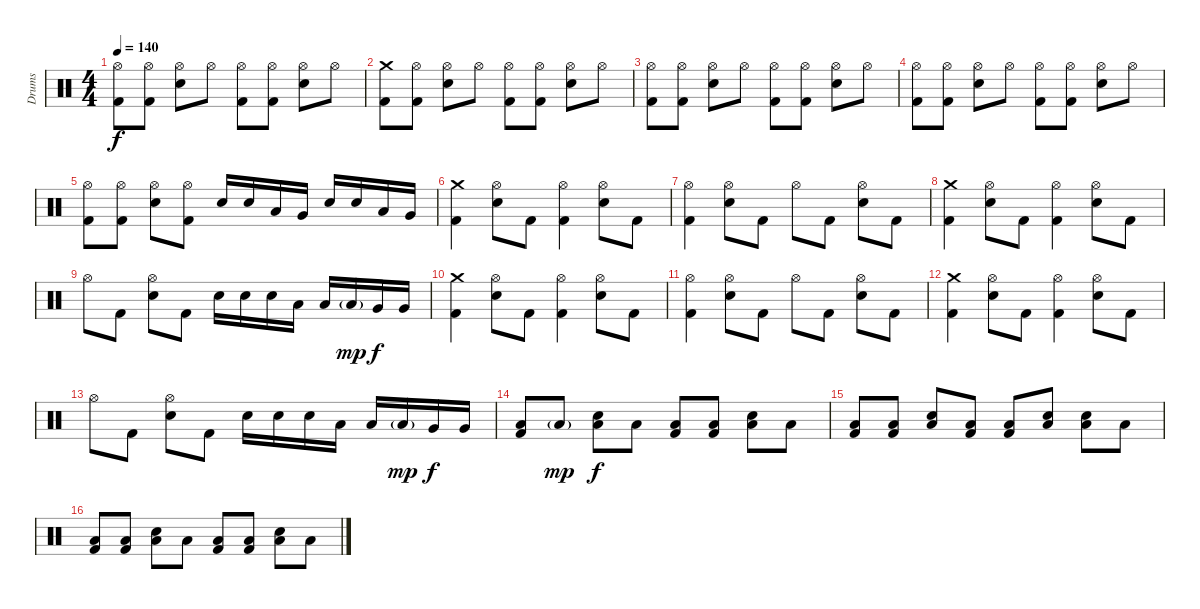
\track ("Drums" "Drums") {instrument percussion}
\staff {score}
\articulation defaults
\ts (4 4)
\tempo 140
\clef neutral
\ks c
("Hi-Hat (open)" "Kick (hit) 2").8{dy f} ("Hi-Hat (open)" "Kick (hit) 2").8 ("Hi-Hat (open)" "Electric Snare (hit)").8 "Hi-Hat (open)".8 ("Hi-Hat (open)" "Kick (hit) 2").8 ("Hi-Hat (open)" "Kick (hit) 2").8 ("Hi-Hat (open)" "Electric Snare (hit)").8 "Hi-Hat (open)".8 |
("Crash medium (hit)" "Kick (hit) 2").8 ("Hi-Hat (open)" "Kick (hit) 2").8 ("Hi-Hat (open)" "Electric Snare (hit)").8 "Hi-Hat (open)".8 ("Hi-Hat (open)" "Kick (hit) 2").8 ("Hi-Hat (open)" "Kick (hit) 2").8 ("Hi-Hat (open)" "Electric Snare (hit)").8 "Hi-Hat (open)".8 |
("Hi-Hat (open)" "Kick (hit) 2").8 ("Hi-Hat (open)" "Kick (hit) 2").8 ("Hi-Hat (open)" "Electric Snare (hit)").8 "Hi-Hat (open)".8 ("Hi-Hat (open)" "Kick (hit) 2").8 ("Hi-Hat (open)" "Kick (hit) 2").8 ("Hi-Hat (open)" "Electric Snare (hit)").8 "Hi-Hat (open)".8 |
("Hi-Hat (open)" "Kick (hit) 2").8 ("Hi-Hat (open)" "Kick (hit) 2").8 ("Hi-Hat (open)" "Electric Snare (hit)").8 "Hi-Hat (open)".8 ("Hi-Hat (open)" "Kick (hit) 2").8 ("Hi-Hat (open)" "Kick (hit) 2").8 ("Hi-Hat (open)" "Electric Snare (hit)").8 "Hi-Hat (open)".8 |
("Hi-Hat (open)" "Kick (hit) 2").8 ("Hi-Hat (open)" "Kick (hit) 2").8 ("Hi-Hat (open)" "Electric Snare (hit)").8 ("Hi-Hat (open)" "Kick (hit) 2").8 "Electric Snare (hit)".16 "Electric Snare (hit)".16 "Low Tom (hit)".16 "Very Low Tom (hit)".16 "Electric Snare (hit)".16 "Electric Snare (hit)".16 "Low Tom (hit)".16 "Very Low Tom (hit)".16 |
("Crash medium (hit)" "Kick (hit) 2").4 ("Hi-Hat (open)" "Electric Snare (hit)").8 "Kick (hit) 2".8 ("Hi-Hat (open)" "Kick (hit) 2").4 ("Hi-Hat (open)" "Electric Snare (hit)").8 "Kick (hit) 2".8 |
("Hi-Hat (open)" "Kick (hit) 2").4 ("Hi-Hat (open)" "Electric Snare (hit)").8 "Kick (hit) 2".8 "Hi-Hat (open)".8 "Kick (hit) 2".8 ("Hi-Hat (open)" "Electric Snare (hit)").8 "Kick (hit) 2".8 |
("Crash medium (hit)" "Kick (hit) 2").4 ("Hi-Hat (open)" "Electric Snare (hit)").8 "Kick (hit) 2".8 ("Hi-Hat (open)" "Kick (hit) 2").4 ("Hi-Hat (open)" "Electric Snare (hit)").8 "Kick (hit) 2".8 |
"Hi-Hat (open)".8 "Kick (hit) 2".8 ("Hi-Hat (open)" "Electric Snare (hit)").8 "Kick (hit) 2".8 "Electric Snare (hit)".16 "Electric Snare (hit)".16 "Electric Snare (hit)".16 "Low Tom (hit)".16 "Low Tom (hit)".16 "Low Tom (hit)"{g}.16{dy mp} "Very Low Tom (hit)".16{dy f} "Very Low Tom (hit)".16 |
("Crash medium (hit)" "Kick (hit) 2").4 ("Hi-Hat (open)" "Electric Snare (hit)").8 "Kick (hit) 2".8 ("Hi-Hat (open)" "Kick (hit) 2").4 ("Hi-Hat (open)" "Electric Snare (hit)").8 "Kick (hit) 2".8 |
("Hi-Hat (open)" "Kick (hit) 2").4 ("Hi-Hat (open)" "Electric Snare (hit)").8 "Kick (hit) 2".8 "Hi-Hat (open)".8 "Kick (hit) 2".8 ("Hi-Hat (open)" "Electric Snare (hit)").8 "Kick (hit) 2".8 |
("Crash medium (hit)" "Kick (hit) 2").4 ("Hi-Hat (open)" "Electric Snare (hit)").8 "Kick (hit) 2".8 ("Hi-Hat (open)" "Kick (hit) 2").4 ("Hi-Hat (open)" "Electric Snare (hit)").8 "Kick (hit) 2".8 |
"Hi-Hat (open)".8 "Kick (hit) 2".8 ("Hi-Hat (open)" "Electric Snare (hit)").8 "Kick (hit) 2".8 "Electric Snare (hit)".16 "Electric Snare (hit)".16 "Electric Snare (hit)".16 "Low Tom (hit)".16 "Low Tom (hit)".16 "Low Tom (hit)"{g}.16{dy mp} "Very Low Tom (hit)".16{dy f} "Very Low Tom (hit)".16 |
("Low Floor Tom (hit)" "Kick (hit) 2").8 "Low Floor Tom (hit)"{g}.8{dy mp} ("Low Floor Tom (hit)" "Electric Snare (hit)").8{dy f} "Low Floor Tom (hit)".8 ("Low Floor Tom (hit)" "Kick (hit) 2").8 ("Low Floor Tom (hit)" "Kick (hit) 2").8 ("Low Floor Tom (hit)" "Electric Snare (hit)").8 "Low Floor Tom (hit)".8 |
("Low Floor Tom (hit)" "Kick (hit) 2").8 ("Low Floor Tom (hit)" "Kick (hit) 2").8 ("Low Floor Tom (hit)" "Electric Snare (hit)").8 ("Low Floor Tom (hit)" "Kick (hit) 2").8 ("Low Floor Tom (hit)" "Kick (hit) 2").8 ("Low Floor Tom (hit)" "Electric Snare (hit)").8 ("Low Floor Tom (hit)" "Electric Snare (hit)").8 "Low Floor Tom (hit)".8 |
("Low Floor Tom (hit)" "Kick (hit) 2").8 ("Low Floor Tom (hit)" "Kick (hit) 2").8 ("Low Floor Tom (hit)" "Electric Snare (hit)").8 "Low Floor Tom (hit)".8 ("Low Floor Tom (hit)" "Kick (hit) 2").8 ("Low Floor Tom (hit)" "Kick (hit) 2").8 ("Low Floor Tom (hit)" "Electric Snare (hit)").8 "Low Floor Tom (hit)".8
